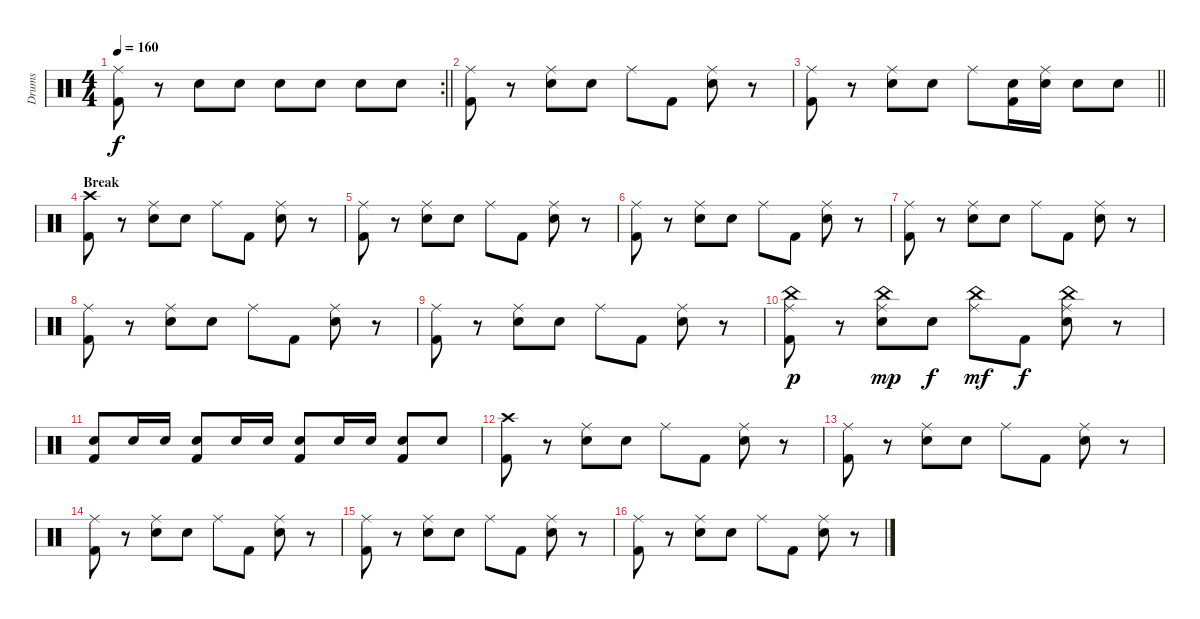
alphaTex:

\track ("Drums" "Drums") {instrument percussion}
\staff {score}
\articulation defaults
\rc 2
\ts (4 4)
\tempo 160
\clef neutral
\barLineRight lightlight
\ks c
("Ride (middle)" "Kick (hit) 2").8{dy f} r.8 "Snare (hit) 2".8 "Snare (hit) 2".8 "Snare (hit) 2".8 "Snare (hit) 2".8 "Snare (hit) 2".8 "Snare (hit) 2".8 |
("Ride (middle)" "Kick (hit) 2").8 r.8 ("Ride (middle)" "Snare (hit) 2").8 "Snare (hit) 2".8 "Ride (middle)".8 "Kick (hit) 2".8 ("Ride (middle)" "Snare (hit) 2").8 r.8 |
\barLineRight lightlight
("Ride (middle)" "Kick (hit) 2").8 r.8 ("Ride (middle)" "Snare (hit) 2").8 "Snare (hit) 2".8 "Ride (middle)".8 ("Snare (hit) 2" "Kick (hit) 2").16 ("Ride (middle)" "Snare (hit) 2").16 "Snare (hit) 2".8 "Snare (hit) 2".8 |
\section ("" "Break")
("Crash high (hit)" "Kick (hit) 2").8 r.8 ("Ride (middle)" "Snare (hit) 2").8 "Snare (hit) 2".8 "Ride (middle)".8 "Kick (hit) 2".8 ("Ride (middle)" "Snare (hit) 2").8 r.8 |
("Ride (middle)" "Kick (hit) 2").8 r.8 ("Ride (middle)" "Snare (hit) 2").8 "Snare (hit) 2".8 "Ride (middle)".8 "Kick (hit) 2".8 ("Ride (middle)" "Snare (hit) 2").8 r.8 |
("Ride (middle)" "Kick (hit) 2").8 r.8 ("Ride (middle)" "Snare (hit) 2").8 "Snare (hit) 2".8 "Ride (middle)".8 "Kick (hit) 2".8 ("Ride (middle)" "Snare (hit) 2").8 r.8 |
("Ride (middle)" "Kick (hit) 2").8 r.8 ("Ride (middle)" "Snare (hit) 2").8 "Snare (hit) 2".8 "Ride (middle)".8 "Kick (hit) 2".8 ("Ride (middle)" "Snare (hit) 2").8 r.8 |
("Ride (middle)" "Kick (hit) 2").8 r.8 ("Ride (middle)" "Snare (hit) 2").8 "Snare (hit) 2".8 "Ride (middle)".8 "Kick (hit) 2".8 ("Ride (middle)" "Snare (hit) 2").8 r.8 |
("Ride (middle)" "Kick (hit) 2").8 r.8 ("Ride (middle)" "Snare (hit) 2").8 "Snare (hit) 2".8 "Ride (middle)".8 "Kick (hit) 2".8 ("Ride (middle)" "Snare (hit) 2").8 r.8 |
("Ride (middle)" "China (hit)" "Kick (hit) 2").8{dy p} r.8 ("Ride (middle)" "China (hit)" "Snare (hit) 2").8{dy mp} "Snare (hit) 2".8{dy f} ("Ride (middle)" "China (hit)").8{dy mf} "Kick (hit) 2".8{dy f} ("Ride (middle)" "China (hit)" "Snare (hit) 2").8 r.8 |
("Snare (hit) 2" "Kick (hit) 2").8 "Snare (hit) 2".16 "Snare (hit) 2".16 ("Snare (hit) 2" "Kick (hit) 2").8 "Snare (hit) 2".16 "Snare (hit) 2".16 ("Snare (hit) 2" "Kick (hit) 2").8 "Snare (hit) 2".16 "Snare (hit) 2".16 ("Snare (hit) 2" "Kick (hit) 2").8 "Snare (hit) 2".8 |
("Crash high (hit)" "Kick (hit) 2").8 r.8 ("Ride (middle)" "Snare (hit) 2").8 "Snare (hit) 2".8 "Ride (middle)".8 "Kick (hit) 2".8 ("Ride (middle)" "Snare (hit) 2").8 r.8 |
("Ride (middle)" "Kick (hit) 2").8 r.8 ("Ride (middle)" "Snare (hit) 2").8 "Snare (hit) 2".8 "Ride (middle)".8 "Kick (hit) 2".8 ("Ride (middle)" "Snare (hit) 2").8 r.8 |
("Ride (middle)" "Kick (hit) 2").8 r.8 ("Ride (middle)" "Snare (hit) 2").8 "Snare (hit) 2".8 "Ride (middle)".8 "Kick (hit) 2".8 ("Ride (middle)" "Snare (hit) 2").8 r.8 |
("Ride (middle)" "Kick (hit) 2").8 r.8 ("Ride (middle)" "Snare (hit) 2").8 "Snare (hit) 2".8 "Ride (middle)".8 "Kick (hit) 2".8 ("Ride (middle)" "Snare (hit) 2").8 r.8 |
("Ride (middle)" "Kick (hit) 2").8 r.8 ("Ride (middle)" "Snare (hit) 2").8 "Snare (hit) 2".8 "Ride (middle)".8 "Kick (hit) 2".8 ("Ride (middle)" "Snare (hit) 2").8 r.8
